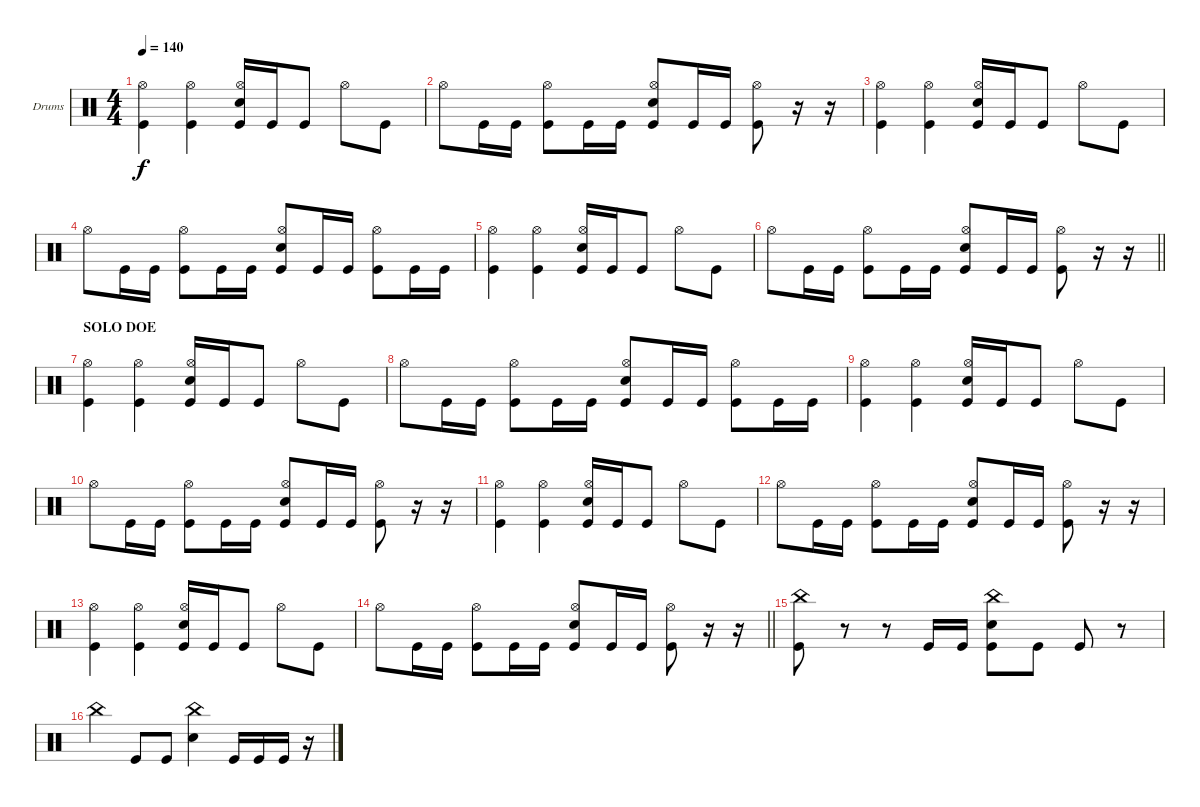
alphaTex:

\bracketExtendMode groupsimilarinstruments
\firstSystemTrackNameOrientation horizontal
\otherSystemsTrackNameOrientation horizontal
\track ("Drumkit" "Drums") {instrument percussion}
\staff {score}
\articulation defaults
\ts (4 4)
\tempo 140
\clef neutral
\ks c
("Kick (hit)" "Hi-Hat (open)").4{dy f} ("Kick (hit)" "Hi-Hat (open)").4 ("Kick (hit)" "Hi-Hat (open)" "Snare (hit) 2").16 "Kick (hit)".16 "Kick (hit)".8 "Hi-Hat (open)".8 "Kick (hit)".8 |
"Hi-Hat (open)".8 "Kick (hit)".16 "Kick (hit)".16 ("Kick (hit)" "Hi-Hat (open)").8 "Kick (hit)".16 "Kick (hit)".16 ("Kick (hit)" "Hi-Hat (open)" "Snare (hit) 2").8 "Kick (hit)".16 "Kick (hit)".16 ("Kick (hit)" "Hi-Hat (open)").8 r.16 r.16 |
("Kick (hit)" "Hi-Hat (open)").4 ("Kick (hit)" "Hi-Hat (open)").4 ("Kick (hit)" "Hi-Hat (open)" "Snare (hit) 2").16 "Kick (hit)".16 "Kick (hit)".8 "Hi-Hat (open)".8 "Kick (hit)".8 |
"Hi-Hat (open)".8 "Kick (hit)".16 "Kick (hit)".16 ("Kick (hit)" "Hi-Hat (open)").8 "Kick (hit)".16 "Kick (hit)".16 ("Kick (hit)" "Hi-Hat (open)" "Snare (hit) 2").8 "Kick (hit)".16 "Kick (hit)".16 ("Kick (hit)" "Hi-Hat (open)").8 "Kick (hit)".16 "Kick (hit)".16 |
("Kick (hit)" "Hi-Hat (open)").4 ("Kick (hit)" "Hi-Hat (open)").4 ("Kick (hit)" "Hi-Hat (open)" "Snare (hit) 2").16 "Kick (hit)".16 "Kick (hit)".8 "Hi-Hat (open)".8 "Kick (hit)".8 |
\barLineRight lightlight "Hi-Hat (open)".8 "Kick (hit)".16 "Kick (hit)".16
("Kick (hit)" "Hi-Hat (open)").8 "Kick (hit)".16 "Kick (hit)".16 ("Kick (hit)" "Hi-Hat (open)" "Snare (hit) 2").8 "Kick (hit)".16 "Kick (hit)".16 ("Kick (hit)" "Hi-Hat (open)").8 r.16 r.16 |
\section ("" "SOLO DOE")
("Kick (hit)" "Hi-Hat (open)").4 ("Kick (hit)" "Hi-Hat (open)").4 ("Kick (hit)" "Hi-Hat (open)" "Snare (hit) 2").16 "Kick (hit)".16 "Kick (hit)".8 "Hi-Hat (open)".8 "Kick (hit)".8 |
"Hi-Hat (open)".8 "Kick (hit)".16 "Kick (hit)".16 ("Kick (hit)" "Hi-Hat (open)").8 "Kick (hit)".16 "Kick (hit)".16 ("Kick (hit)" "Hi-Hat (open)" "Snare (hit) 2").8 "Kick (hit)".16 "Kick (hit)".16 ("Kick (hit)" "Hi-Hat (open)").8 "Kick (hit)".16 "Kick (hit)".16 |
("Kick (hit)" "Hi-Hat (open)").4 ("Kick (hit)" "Hi-Hat (open)").4 ("Kick (hit)" "Hi-Hat (open)" "Snare (hit) 2").16 "Kick (hit)".16 "Kick (hit)".8 "Hi-Hat (open)".8 "Kick (hit)".8 |
"Hi-Hat (open)".8 "Kick (hit)".16 "Kick (hit)".16 ("Kick (hit)" "Hi-Hat (open)").8 "Kick (hit)".16 "Kick (hit)".16 ("Kick (hit)" "Hi-Hat (open)" "Snare (hit) 2").8 "Kick (hit)".16 "Kick (hit)".16 ("Kick (hit)" "Hi-Hat (open)").8 r.16 r.16 |
("Kick (hit)" "Hi-Hat (open)").4 ("Kick (hit)" "Hi-Hat (open)").4 ("Kick (hit)" "Hi-Hat (open)" "Snare (hit) 2").16 "Kick (hit)".16 "Kick (hit)".8 "Hi-Hat (open)".8 "Kick (hit)".8 |
"Hi-Hat (open)".8 "Kick (hit)".16 "Kick (hit)".16 ("Kick (hit)" "Hi-Hat (open)").8 "Kick (hit)".16 "Kick (hit)".16 ("Kick (hit)" "Hi-Hat (open)" "Snare (hit) 2").8 "Kick (hit)".16 "Kick (hit)".16 ("Kick (hit)" "Hi-Hat (open)").8 r.16 r.16 |
("Kick (hit)" "Hi-Hat (open)").4 ("Kick (hit)" "Hi-Hat (open)").4 ("Kick (hit)" "Hi-Hat (open)" "Snare (hit) 2").16 "Kick (hit)".16 "Kick (hit)".8 "Hi-Hat (open)".8 "Kick (hit)".8 |
\barLineRight lightlight "Hi-Hat (open)".8 "Kick (hit)".16 "Kick (hit)".16
("Kick (hit)" "Hi-Hat (open)").8 "Kick (hit)".16 "Kick (hit)".16 ("Kick (hit)" "Hi-Hat (open)" "Snare (hit) 2").8 "Kick (hit)".16 "Kick (hit)".16 ("Kick (hit)" "Hi-Hat (open)").8 r.16 r.16 |
\section ("" "")
("Kick (hit)" "China (hit)").8 r.8 r.8 "Kick (hit)".16 "Kick (hit)".16 ("Kick (hit)" "China (hit)" "Snare (hit) 2").8 "Kick (hit)".8 "Kick (hit)".8 r.8 |
"China (hit)".4 "Kick (hit)".8 "Kick (hit)".8 ("China (hit)" "Snare (hit) 2").4 "Kick (hit)".16 "Kick (hit)".16 "Kick (hit)".16 r.16
